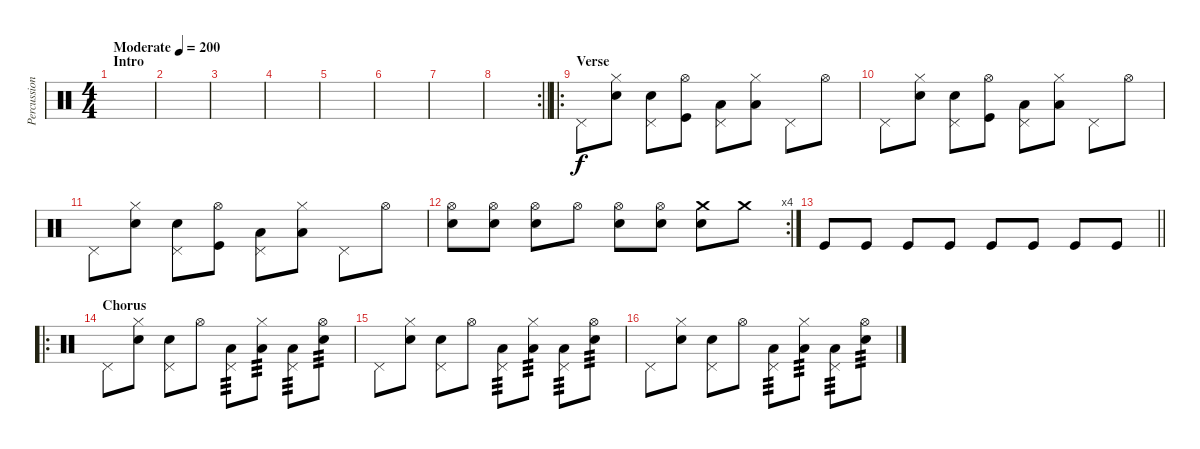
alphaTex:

\track ("Percussion" "Percussion") {instrument percussion}
\staff {score}
\articulation defaults
\ts (4 4)
\section ("" "Intro")
\tempo (200 "Moderate")
\clef neutral
\ks c
|
|
|
|
|
|
|
\rc 2
\barLineRight lightlight
|
\ro
\section ("" "Verse")
"Pedal Hi-Hat (hit)".8{volume 7} ("Hi-Hat (closed)" "Electric Snare (hit)").8 ("Pedal Hi-Hat (hit)" "Electric Snare (hit)").8 ("Hi-Hat (open)" "Kick (hit)").8 ("Pedal Hi-Hat (hit)" "Low Floor Tom (hit)").8 ("Hi-Hat (closed)" "Low Tom (hit)").8 "Pedal Hi-Hat (hit)".8 "Hi-Hat (open)".8 |
"Pedal Hi-Hat (hit)".8 ("Hi-Hat (closed)" "Electric Snare (hit)").8 ("Pedal Hi-Hat (hit)" "Electric Snare (hit)").8 ("Hi-Hat (open)" "Kick (hit)").8 ("Pedal Hi-Hat (hit)" "Low Floor Tom (hit)").8 ("Hi-Hat (closed)" "Low Tom (hit)").8 "Pedal Hi-Hat (hit)".8 "Hi-Hat (open)".8 |
"Pedal Hi-Hat (hit)".8 ("Hi-Hat (closed)" "Electric Snare (hit)").8 ("Pedal Hi-Hat (hit)" "Electric Snare (hit)").8 ("Hi-Hat (open)" "Kick (hit)").8 ("Pedal Hi-Hat (hit)" "Low Floor Tom (hit)").8 ("Hi-Hat (closed)" "Low Tom (hit)").8 "Pedal Hi-Hat (hit)".8 "Hi-Hat (open)".8 |
\rc 4
("Hi-Hat (open)" "Electric Snare (hit)").8 ("Hi-Hat (open)" "Electric Snare (hit)").8 ("Hi-Hat (open)" "Electric Snare (hit)").8 "Hi-Hat (open)".8 ("Hi-Hat (open)" "Electric Snare (hit)").8 ("Hi-Hat (open)" "Electric Snare (hit)").8 ("Crash medium (hit)" "Electric Snare (hit)").8 "Crash medium (hit)".8 |
\barLineRight lightlight "Kick (hit)".8{volume 7} "Kick (hit)".8 "Kick (hit)".8 "Kick (hit)".8 "Kick (hit)".8 "Kick (hit)".8 "Kick (hit)".8 "Kick (hit)".8
|
\ro
\section ("" "Chorus")
"Pedal Hi-Hat (hit)".8 ("Hi-Hat (closed)" "Electric Snare (hit)").8 ("Pedal Hi-Hat (hit)" "Electric Snare (hit)").8 "Hi-Hat (open)".8 ("Pedal Hi-Hat (hit)" "Low Floor Tom (hit)").8{tp 3} ("Hi-Hat (closed)" "Low Floor Tom (hit)").8{tp 3} ("Pedal Hi-Hat (hit)" "Low Tom (hit)").8{tp 3} ("Hi-Hat (open)" "Electric Snare (hit)").8{tp 3} |
"Pedal Hi-Hat (hit)".8 ("Hi-Hat (closed)" "Electric Snare (hit)").8 ("Pedal Hi-Hat (hit)" "Electric Snare (hit)").8 "Hi-Hat (open)".8 ("Pedal Hi-Hat (hit)" "Low Floor Tom (hit)").8{tp 3} ("Hi-Hat (closed)" "Low Floor Tom (hit)").8{tp 3} ("Pedal Hi-Hat (hit)" "Low Tom (hit)").8{tp 3} ("Hi-Hat (open)" "Electric Snare (hit)").8{tp 3} |
"Pedal Hi-Hat (hit)".8 ("Hi-Hat (closed)" "Electric Snare (hit)").8 ("Pedal Hi-Hat (hit)" "Electric Snare (hit)").8 "Hi-Hat (open)".8 ("Pedal Hi-Hat (hit)" "Low Floor Tom (hit)").8{tp 3} ("Hi-Hat (closed)" "Low Floor Tom (hit)").8{tp 3} ("Pedal Hi-Hat (hit)" "Low Tom (hit)").8{tp 3} ("Hi-Hat (open)" "Electric Snare (hit)").8{tp 3}
